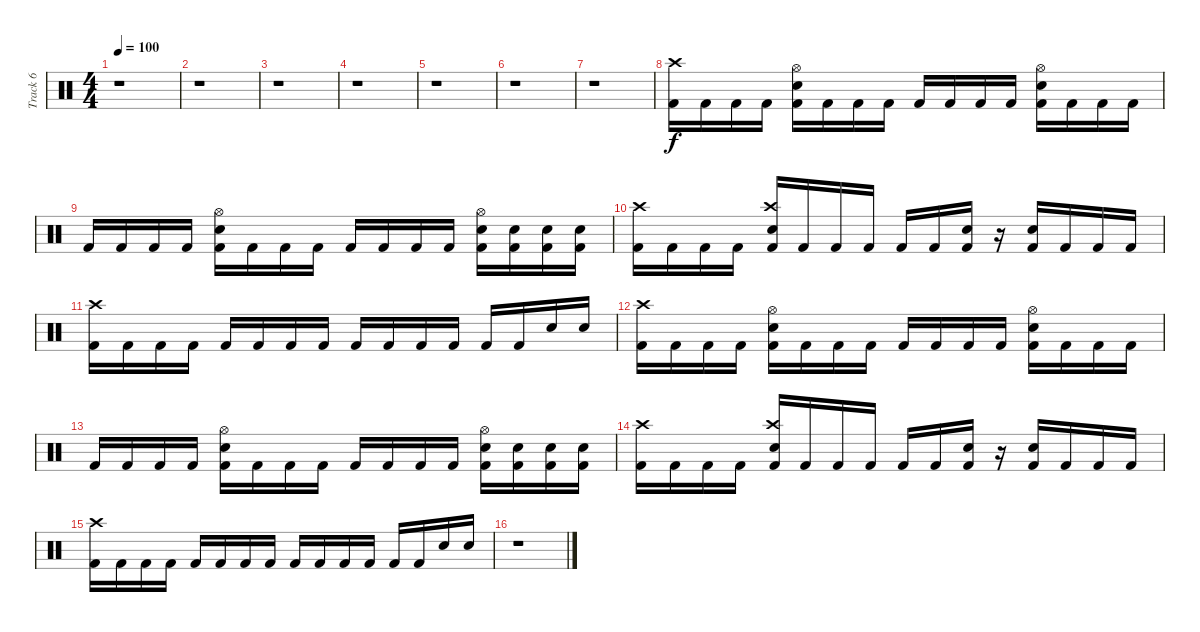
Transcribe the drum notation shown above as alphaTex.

\track ("Track 6" "Track 6") {instrument percussion}
\staff {score}
\articulation defaults
\ts (4 4)
\tempo 100
\clef neutral
\ks c
r.1{dy f} |
r.1 |
r.1 |
r.1 |
r.1 |
r.1 |
r.1 |
("Kick (hit) 2" "Crash high (hit)").16 "Kick (hit) 2".16 "Kick (hit) 2".16 "Kick (hit) 2".16 ("Kick (hit) 2" "Snare (hit) 2" "Hi-Hat (open)").16 "Kick (hit) 2".16 "Kick (hit) 2".16 "Kick (hit) 2".16 "Kick (hit) 2".16 "Kick (hit) 2".16 "Kick (hit) 2".16 "Kick (hit) 2".16 ("Kick (hit) 2" "Snare (hit) 2" "Hi-Hat (open)").16 "Kick (hit) 2".16 "Kick (hit) 2".16 "Kick (hit) 2".16 |
"Kick (hit) 2".16 "Kick (hit) 2".16 "Kick (hit) 2".16 "Kick (hit) 2".16 ("Kick (hit) 2" "Snare (hit) 2" "Hi-Hat (open)").16 "Kick (hit) 2".16 "Kick (hit) 2".16 "Kick (hit) 2".16 "Kick (hit) 2".16 "Kick (hit) 2".16 "Kick (hit) 2".16 "Kick (hit) 2".16 ("Kick (hit) 2" "Snare (hit) 2" "Hi-Hat (open)").16 ("Kick (hit) 2" "Snare (hit) 2").16 ("Kick (hit) 2" "Snare (hit) 2").16 ("Kick (hit) 2" "Snare (hit) 2").16 |
("Kick (hit) 2" "Crash high (hit)").16 "Kick (hit) 2".16 "Kick (hit) 2".16 "Kick (hit) 2".16 ("Kick (hit) 2" "Crash high (hit)" "Snare (hit) 2").16 "Kick (hit) 2".16 "Kick (hit) 2".16 "Kick (hit) 2".16 "Kick (hit) 2".16 "Kick (hit) 2".16 ("Snare (hit) 2" "Kick (hit) 2").16 r.16 ("Snare (hit) 2" "Kick (hit) 2").16 "Kick (hit) 2".16 "Kick (hit) 2".16 "Kick (hit) 2".16 |
("Crash high (hit)" "Kick (hit) 2").16 "Kick (hit) 2".16 "Kick (hit) 2".16 "Kick (hit) 2".16 "Kick (hit) 2".16 "Kick (hit) 2".16 "Kick (hit) 2".16 "Kick (hit) 2".16 "Kick (hit) 2".16 "Kick (hit) 2".16 "Kick (hit) 2".16 "Kick (hit) 2".16 "Kick (hit) 2".16 "Kick (hit) 2".16 "Snare (hit) 2".16 "Snare (hit) 2".16 |
("Kick (hit) 2" "Crash high (hit)").16 "Kick (hit) 2".16 "Kick (hit) 2".16 "Kick (hit) 2".16 ("Kick (hit) 2" "Snare (hit) 2" "Hi-Hat (open)").16 "Kick (hit) 2".16 "Kick (hit) 2".16 "Kick (hit) 2".16 "Kick (hit) 2".16 "Kick (hit) 2".16 "Kick (hit) 2".16 "Kick (hit) 2".16 ("Kick (hit) 2" "Snare (hit) 2" "Hi-Hat (open)").16 "Kick (hit) 2".16 "Kick (hit) 2".16 "Kick (hit) 2".16 |
"Kick (hit) 2".16 "Kick (hit) 2".16 "Kick (hit) 2".16 "Kick (hit) 2".16 ("Kick (hit) 2" "Snare (hit) 2" "Hi-Hat (open)").16 "Kick (hit) 2".16 "Kick (hit) 2".16 "Kick (hit) 2".16 "Kick (hit) 2".16 "Kick (hit) 2".16 "Kick (hit) 2".16 "Kick (hit) 2".16 ("Kick (hit) 2" "Snare (hit) 2" "Hi-Hat (open)").16 ("Kick (hit) 2" "Snare (hit) 2").16 ("Kick (hit) 2" "Snare (hit) 2").16 ("Kick (hit) 2" "Snare (hit) 2").16 |
("Kick (hit) 2" "Crash high (hit)").16 "Kick (hit) 2".16 "Kick (hit) 2".16 "Kick (hit) 2".16 ("Kick (hit) 2" "Crash high (hit)" "Snare (hit) 2").16 "Kick (hit) 2".16 "Kick (hit) 2".16 "Kick (hit) 2".16 "Kick (hit) 2".16 "Kick (hit) 2".16 ("Snare (hit) 2" "Kick (hit) 2").16 r.16 ("Snare (hit) 2" "Kick (hit) 2").16 "Kick (hit) 2".16 "Kick (hit) 2".16 "Kick (hit) 2".16 |
("Crash high (hit)" "Kick (hit) 2").16 "Kick (hit) 2".16 "Kick (hit) 2".16 "Kick (hit) 2".16 "Kick (hit) 2".16 "Kick (hit) 2".16 "Kick (hit) 2".16 "Kick (hit) 2".16 "Kick (hit) 2".16 "Kick (hit) 2".16 "Kick (hit) 2".16 "Kick (hit) 2".16 "Kick (hit) 2".16 "Kick (hit) 2".16 "Snare (hit) 2".16 "Snare (hit) 2".16 |
r.1
